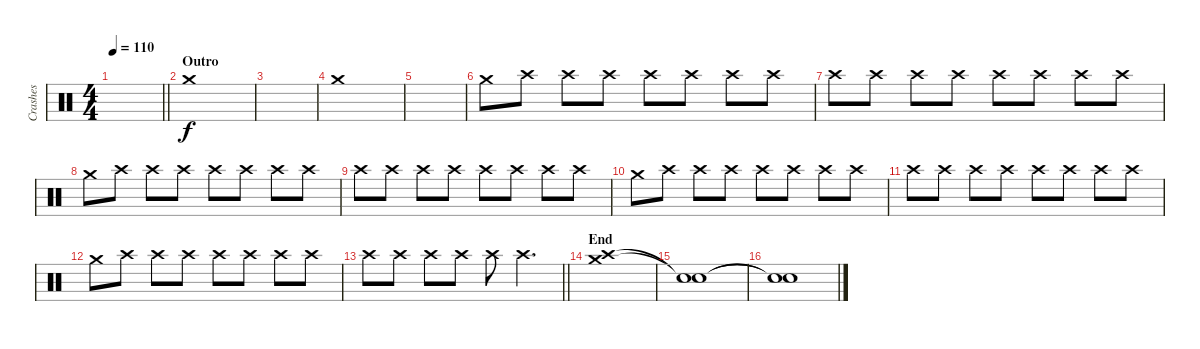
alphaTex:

\track ("Crashes" "Crashes") {instrument percussion}
\staff {score}
\articulation defaults
\ts (4 4)
\tempo 110
\clef neutral
\barLineRight lightlight
\ks c
|
\section ("" "Outro")
"Crash medium (hit)".1 |
|
"Crash medium (hit)".1 |
|
"Crash medium (hit)".8 "Crash high (hit)".8 "Crash high (hit)".8 "Crash high (hit)".8 "Crash high (hit)".8 "Crash high (hit)".8 "Crash high (hit)".8 "Crash high (hit)".8 |
"Crash high (hit)".8 "Crash high (hit)".8 "Crash high (hit)".8 "Crash high (hit)".8 "Crash high (hit)".8 "Crash high (hit)".8 "Crash high (hit)".8 "Crash high (hit)".8 |
"Crash medium (hit)".8 "Crash high (hit)".8 "Crash high (hit)".8 "Crash high (hit)".8 "Crash high (hit)".8 "Crash high (hit)".8 "Crash high (hit)".8 "Crash high (hit)".8 |
"Crash high (hit)".8 "Crash high (hit)".8 "Crash high (hit)".8 "Crash high (hit)".8 "Crash high (hit)".8 "Crash high (hit)".8 "Crash high (hit)".8 "Crash high (hit)".8 |
"Crash medium (hit)".8 "Crash high (hit)".8 "Crash high (hit)".8 "Crash high (hit)".8 "Crash high (hit)".8 "Crash high (hit)".8 "Crash high (hit)".8 "Crash high (hit)".8 |
"Crash high (hit)".8 "Crash high (hit)".8 "Crash high (hit)".8 "Crash high (hit)".8 "Crash high (hit)".8 "Crash high (hit)".8 "Crash high (hit)".8 "Crash high (hit)".8 |
"Crash medium (hit)".8 "Crash high (hit)".8 "Crash high (hit)".8 "Crash high (hit)".8 "Crash high (hit)".8 "Crash high (hit)".8 "Crash high (hit)".8 "Crash high (hit)".8 |
\barLineRight lightlight "Crash high (hit)".8 "Crash high (hit)".8 "Crash high (hit)".8 "Crash high (hit)".8 "Crash high (hit)".8 "Crash high (hit)".4{d}
|
\section ("" "End")
("Crash medium (hit)" "Crash high (hit)").1 |
("Snare (hit)"{t} "Snare (hit)"{t}).1 |
("Snare (hit)"{t} "Snare (hit)"{t}).1
